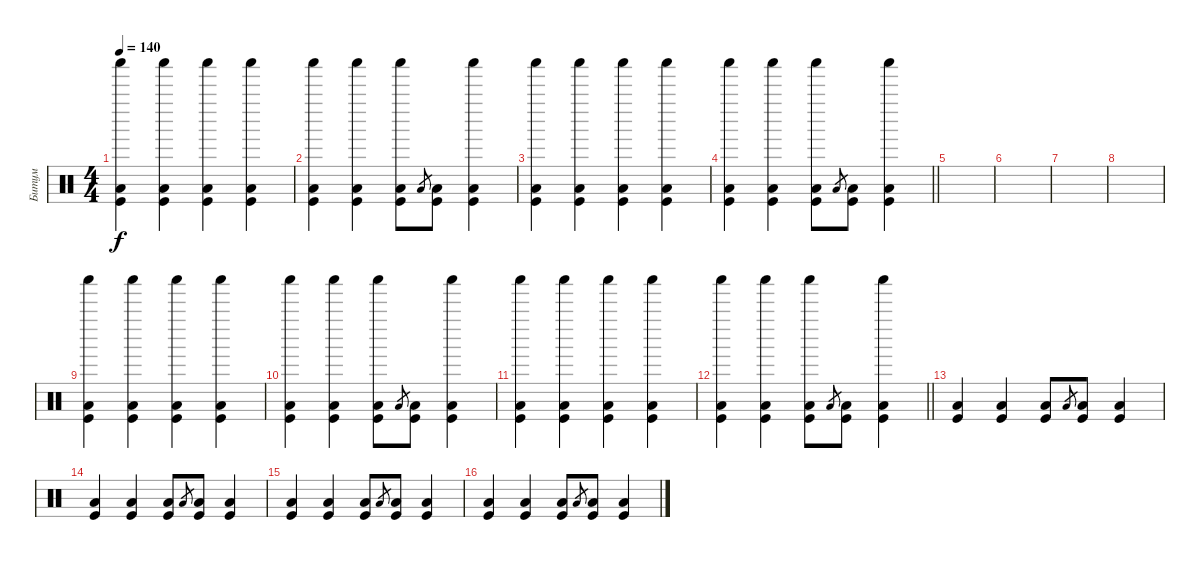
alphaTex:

\track ("Битум" "Битум") {instrument percussion}
\staff {score}
\articulation defaults
\ts (4 4)
\tempo 140
\clef neutral
\ks c
("Shaker (hit)" "Low Floor Tom (hit)" "Kick (hit)").4{dy f} ("Shaker (hit)" "Low Floor Tom (hit)" "Kick (hit)").4 ("Shaker (hit)" "Low Floor Tom (hit)" "Kick (hit)").4 ("Shaker (hit)" "Low Floor Tom (hit)" "Kick (hit)").4 |
("Shaker (hit)" "Low Floor Tom (hit)" "Kick (hit)").4 ("Shaker (hit)" "Low Floor Tom (hit)" "Kick (hit)").4 ("Shaker (hit)" "Low Floor Tom (hit)" "Kick (hit)").8 "Low Floor Tom (hit)".8{gr} ("Low Floor Tom (hit)" "Kick (hit)").8 ("Shaker (hit)" "Low Floor Tom (hit)" "Kick (hit)").4 |
("Shaker (hit)" "Low Floor Tom (hit)" "Kick (hit)").4 ("Shaker (hit)" "Low Floor Tom (hit)" "Kick (hit)").4 ("Shaker (hit)" "Low Floor Tom (hit)" "Kick (hit)").4 ("Shaker (hit)" "Low Floor Tom (hit)" "Kick (hit)").4 |
\barLineRight lightlight
("Shaker (hit)" "Low Floor Tom (hit)" "Kick (hit)").4 ("Shaker (hit)" "Low Floor Tom (hit)" "Kick (hit)").4 ("Shaker (hit)" "Low Floor Tom (hit)" "Kick (hit)").8 "Low Floor Tom (hit)".8{gr} ("Low Floor Tom (hit)" "Kick (hit)").8 ("Shaker (hit)" "Low Floor Tom (hit)" "Kick (hit)").4 |
|
|
|
|
("Shaker (hit)" "Low Floor Tom (hit)" "Kick (hit)").4 ("Shaker (hit)" "Low Floor Tom (hit)" "Kick (hit)").4 ("Shaker (hit)" "Low Floor Tom (hit)" "Kick (hit)").4 ("Shaker (hit)" "Low Floor Tom (hit)" "Kick (hit)").4 |
("Shaker (hit)" "Low Floor Tom (hit)" "Kick (hit)").4 ("Shaker (hit)" "Low Floor Tom (hit)" "Kick (hit)").4 ("Shaker (hit)" "Low Floor Tom (hit)" "Kick (hit)").8 "Low Floor Tom (hit)".8{gr} ("Low Floor Tom (hit)" "Kick (hit)").8 ("Shaker (hit)" "Low Floor Tom (hit)" "Kick (hit)").4 |
("Shaker (hit)" "Low Floor Tom (hit)" "Kick (hit)").4 ("Shaker (hit)" "Low Floor Tom (hit)" "Kick (hit)").4 ("Shaker (hit)" "Low Floor Tom (hit)" "Kick (hit)").4 ("Shaker (hit)" "Low Floor Tom (hit)" "Kick (hit)").4 |
\barLineRight lightlight
("Shaker (hit)" "Low Floor Tom (hit)" "Kick (hit)").4 ("Shaker (hit)" "Low Floor Tom (hit)" "Kick (hit)").4 ("Shaker (hit)" "Low Floor Tom (hit)" "Kick (hit)").8 "Low Floor Tom (hit)".8{gr} ("Low Floor Tom (hit)" "Kick (hit)").8 ("Shaker (hit)" "Low Floor Tom (hit)" "Kick (hit)").4 |
("Low Floor Tom (hit)" "Kick (hit)").4 ("Low Floor Tom (hit)" "Kick (hit)").4 ("Low Floor Tom (hit)" "Kick (hit)").8 "Low Floor Tom (hit)".8{gr} ("Low Floor Tom (hit)" "Kick (hit)").8 ("Low Floor Tom (hit)" "Kick (hit)").4 |
("Low Floor Tom (hit)" "Kick (hit)").4 ("Low Floor Tom (hit)" "Kick (hit)").4 ("Low Floor Tom (hit)" "Kick (hit)").8 "Low Floor Tom (hit)".8{gr} ("Low Floor Tom (hit)" "Kick (hit)").8 ("Low Floor Tom (hit)" "Kick (hit)").4 |
("Low Floor Tom (hit)" "Kick (hit)").4 ("Low Floor Tom (hit)" "Kick (hit)").4 ("Low Floor Tom (hit)" "Kick (hit)").8 "Low Floor Tom (hit)".8{gr} ("Low Floor Tom (hit)" "Kick (hit)").8 ("Low Floor Tom (hit)" "Kick (hit)").4 |
("Low Floor Tom (hit)" "Kick (hit)").4 ("Low Floor Tom (hit)" "Kick (hit)").4 ("Low Floor Tom (hit)" "Kick (hit)").8 "Low Floor Tom (hit)".8{gr} ("Low Floor Tom (hit)" "Kick (hit)").8 ("Low Floor Tom (hit)" "Kick (hit)").4
